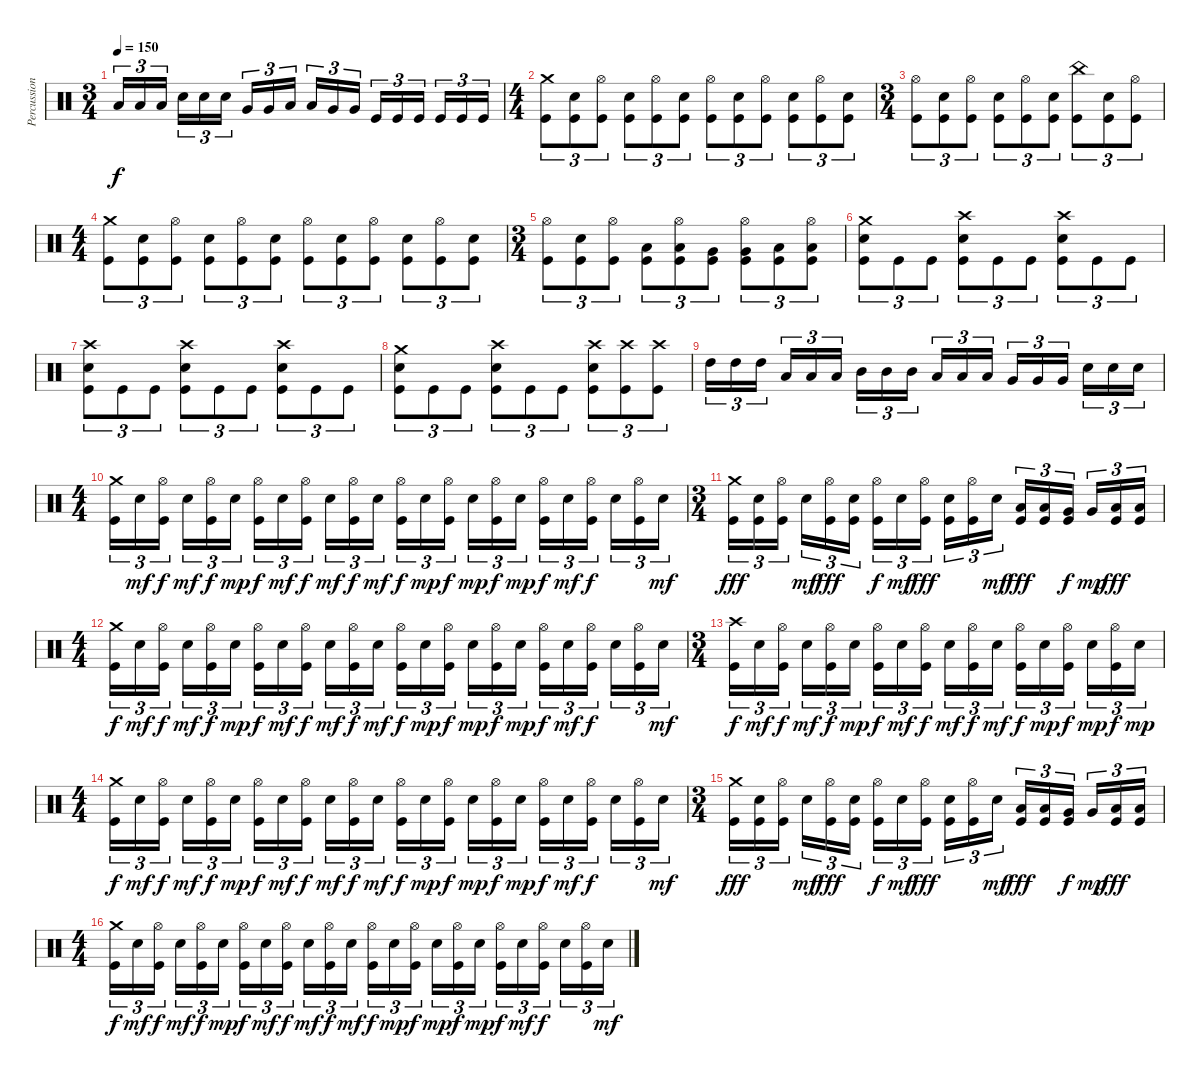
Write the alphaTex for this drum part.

\track ("Percussions" "Percussion") {instrument percussion}
\staff {score}
\articulation defaults
\ts (3 4)
\tempo 150
\clef neutral
\ks c "Low Tom (hit)".16{tu (3 2) dy f} "Low Tom (hit)".16{tu (3 2)} "Low Tom (hit)".16{tu (3 2)} "Snare (hit) 2".16{tu (3 2)} "Snare (hit) 2".16{tu (3 2)} "Snare (hit) 2".16{tu (3 2)} "Very Low Tom (hit)".16{tu (3 2)} "Very Low Tom (hit)".16{tu (3 2)} "Low Tom (hit)".16{tu (3 2)} "Low Tom (hit)".16{tu (3 2)} "Very Low Tom (hit)".16{tu (3 2)} "Very Low Tom (hit)".16{tu (3 2)} "Kick (hit)".16{tu (3 2)} "Kick (hit)".16{tu (3 2)} "Kick (hit)".16{tu (3 2)} "Kick (hit)".16{tu (3 2)} "Kick (hit)".16{tu (3 2)} "Kick (hit)".16{tu (3 2)}
|
\ts (4 4)
("Crash medium (hit)" "Kick (hit)").8{tu (3 2)} ("Snare (hit) 2" "Kick (hit)").8{tu (3 2)} ("Hi-Hat (open)" "Kick (hit)").8{tu (3 2)} ("Snare (hit) 2" "Kick (hit)").8{tu (3 2)} ("Hi-Hat (open)" "Kick (hit)").8{tu (3 2)} ("Snare (hit) 2" "Kick (hit)").8{tu (3 2)} ("Hi-Hat (open)" "Kick (hit)").8{tu (3 2)} ("Snare (hit) 2" "Kick (hit)").8{tu (3 2)} ("Hi-Hat (open)" "Kick (hit)").8{tu (3 2)} ("Snare (hit) 2" "Kick (hit)").8{tu (3 2)} ("Hi-Hat (open)" "Kick (hit)").8{tu (3 2)} ("Snare (hit) 2" "Kick (hit)").8{tu (3 2)} |
\ts (3 4)
("Hi-Hat (open)" "Kick (hit)").8{tu (3 2)} ("Snare (hit) 2" "Kick (hit)").8{tu (3 2)} ("Hi-Hat (open)" "Kick (hit)").8{tu (3 2)} ("Snare (hit) 2" "Kick (hit)").8{tu (3 2)} ("Hi-Hat (open)" "Kick (hit)").8{tu (3 2)} ("Snare (hit) 2" "Kick (hit)").8{tu (3 2)} ("China (hit)" "Kick (hit)").8{tu (3 2)} ("Snare (hit) 2" "Kick (hit)").8{tu (3 2)} ("Hi-Hat (open)" "Kick (hit)").8{tu (3 2)} |
\ts (4 4)
("Crash medium (hit)" "Kick (hit)").8{tu (3 2)} ("Snare (hit) 2" "Kick (hit)").8{tu (3 2)} ("Hi-Hat (open)" "Kick (hit)").8{tu (3 2)} ("Snare (hit) 2" "Kick (hit)").8{tu (3 2)} ("Hi-Hat (open)" "Kick (hit)").8{tu (3 2)} ("Snare (hit) 2" "Kick (hit)").8{tu (3 2)} ("Hi-Hat (open)" "Kick (hit)").8{tu (3 2)} ("Snare (hit) 2" "Kick (hit)").8{tu (3 2)} ("Hi-Hat (open)" "Kick (hit)").8{tu (3 2)} ("Snare (hit) 2" "Kick (hit)").8{tu (3 2)} ("Hi-Hat (open)" "Kick (hit)").8{tu (3 2)} ("Snare (hit) 2" "Kick (hit)").8{tu (3 2)} |
\ts (3 4)
("Hi-Hat (open)" "Kick (hit)").8{tu (3 2)} ("Snare (hit) 2" "Kick (hit)").8{tu (3 2)} ("Hi-Hat (open)" "Kick (hit)").8{tu (3 2)} ("Low Tom (hit)" "Kick (hit)").8{tu (3 2)} ("Hi-Hat (open)" "Low Tom (hit)" "Kick (hit)").8{tu (3 2)} ("Very Low Tom (hit)" "Kick (hit)").8{tu (3 2)} ("Hi-Hat (open)" "Very Low Tom (hit)" "Kick (hit)").8{tu (3 2)} ("Low Tom (hit)" "Kick (hit)").8{tu (3 2)} ("Hi-Hat (open)" "Low Tom (hit)" "Kick (hit)").8{tu (3 2)} |
("Crash medium (hit)" "Snare (hit) 2" "Kick (hit)").8{tu (3 2)} "Kick (hit)".8{tu (3 2)} "Kick (hit)".8{tu (3 2)} ("Crash high (hit)" "Snare (hit) 2" "Kick (hit)").8{tu (3 2)} "Kick (hit)".8{tu (3 2)} "Kick (hit)".8{tu (3 2)} ("Crash high (hit)" "Snare (hit) 2" "Kick (hit)").8{tu (3 2)} "Kick (hit)".8{tu (3 2)} "Kick (hit)".8{tu (3 2)} |
("Crash high (hit)" "Snare (hit) 2" "Kick (hit)").8{tu (3 2)} "Kick (hit)".8{tu (3 2)} "Kick (hit)".8{tu (3 2)} ("Crash high (hit)" "Snare (hit) 2" "Kick (hit)").8{tu (3 2)} "Kick (hit)".8{tu (3 2)} "Kick (hit)".8{tu (3 2)} ("Crash high (hit)" "Snare (hit) 2" "Kick (hit)").8{tu (3 2)} "Kick (hit)".8{tu (3 2)} "Kick (hit)".8{tu (3 2)} |
("Crash medium (hit)" "Snare (hit) 2" "Kick (hit)").8{tu (3 2)} "Kick (hit)".8{tu (3 2)} "Kick (hit)".8{tu (3 2)} ("Crash high (hit)" "Snare (hit) 2" "Kick (hit)").8{tu (3 2)} "Kick (hit)".8{tu (3 2)} "Kick (hit)".8{tu (3 2)} ("Crash high (hit)" "Snare (hit) 2" "Kick (hit)").8{tu (3 2)} ("Crash high (hit)" "Kick (hit)").8{tu (3 2)} ("Crash high (hit)" "Kick (hit)").8{tu (3 2)} |
"High Tom (hit)".16{tu (3 2)} "High Tom (hit)".16{tu (3 2)} "High Tom (hit)".16{tu (3 2)} "Low Tom (hit)".16{tu (3 2)} "Low Tom (hit)".16{tu (3 2)} "Low Tom (hit)".16{tu (3 2)} "Mid Tom (hit)".16{tu (3 2)} "Mid Tom (hit)".16{tu (3 2)} "Mid Tom (hit)".16{tu (3 2)} "Low Tom (hit)".16{tu (3 2)} "Low Tom (hit)".16{tu (3 2)} "Low Tom (hit)".16{tu (3 2)} "Very Low Tom (hit)".16{tu (3 2)} "Very Low Tom (hit)".16{tu (3 2)} "Very Low Tom (hit)".16{tu (3 2)} "Snare (hit) 2".16{tu (3 2)} "Snare (hit) 2".16{tu (3 2)} "Snare (hit) 2".16{tu (3 2)} |
\ts (4 4)
("Crash medium (hit)" "Kick (hit)").16{tu (3 2)} "Snare (hit) 2".16{tu (3 2) dy mf} ("Hi-Hat (open)" "Kick (hit)").16{tu (3 2) dy f} "Snare (hit) 2".16{tu (3 2) dy mf} ("Hi-Hat (open)" "Kick (hit)").16{tu (3 2) dy f} "Snare (hit) 2".16{tu (3 2) dy mp} ("Hi-Hat (open)" "Kick (hit)").16{tu (3 2) dy f} "Snare (hit) 2".16{tu (3 2) dy mf} ("Hi-Hat (open)" "Kick (hit)").16{tu (3 2) dy f} "Snare (hit) 2".16{tu (3 2) dy mf} ("Hi-Hat (open)" "Kick (hit)").16{tu (3 2) dy f} "Snare (hit) 2".16{tu (3 2) dy mf} ("Hi-Hat (open)" "Kick (hit)").16{tu (3 2) dy f} "Snare (hit) 2".16{tu (3 2) dy mp} ("Hi-Hat (open)" "Kick (hit)").16{tu (3 2) dy f} "Snare (hit) 2".16{tu (3 2) dy mp} ("Hi-Hat (open)" "Kick (hit)").16{tu (3 2) dy f} "Snare (hit) 2".16{tu (3 2) dy mp} ("Hi-Hat (open)" "Kick (hit)").16{tu (3 2) dy f} "Snare (hit) 2".16{tu (3 2) dy mf} ("Hi-Hat (open)" "Kick (hit)").16{tu (3 2) dy f} "Snare (hit) 2".16{tu (3 2)} ("Hi-Hat (open)" "Kick (hit)").16{tu (3 2)} "Snare (hit) 2".16{tu (3 2) dy mf} |
\ts (3 4)
("Crash medium (hit)" "Kick (hit)").16{tu (3 2) dy fff} ("Snare (hit) 2" "Kick (hit)").16{tu (3 2)} ("Hi-Hat (open)" "Kick (hit)").16{tu (3 2)} "Snare (hit) 2".16{tu (3 2) dy mf} ("Hi-Hat (open)" "Kick (hit)").16{tu (3 2) dy fff} ("Snare (hit) 2" "Kick (hit)").16{tu (3 2)} ("Hi-Hat (open)" "Kick (hit)").16{tu (3 2) dy f} "Snare (hit) 2".16{tu (3 2) dy mf} ("Hi-Hat (open)" "Kick (hit)").16{tu (3 2) dy fff} ("Snare (hit) 2" "Kick (hit)").16{tu (3 2)} ("Hi-Hat (open)" "Kick (hit)").16{tu (3 2)} "Snare (hit) 2".16{tu (3 2) dy mf} ("Low Tom (hit)" "Kick (hit)").16{tu (3 2) dy fff} ("Low Tom (hit)" "Kick (hit)").16{tu (3 2)} ("Very Low Tom (hit)" "Kick (hit)").16{tu (3 2) dy f} "Very Low Tom (hit)".16{tu (3 2) dy mp} ("Low Tom (hit)" "Kick (hit)").16{tu (3 2) dy fff} ("Low Tom (hit)" "Kick (hit)").16{tu (3 2)} |
\ts (4 4)
("Crash medium (hit)" "Kick (hit)").16{tu (3 2) dy f} "Snare (hit) 2".16{tu (3 2) dy mf} ("Hi-Hat (open)" "Kick (hit)").16{tu (3 2) dy f} "Snare (hit) 2".16{tu (3 2) dy mf} ("Hi-Hat (open)" "Kick (hit)").16{tu (3 2) dy f} "Snare (hit) 2".16{tu (3 2) dy mp} ("Hi-Hat (open)" "Kick (hit)").16{tu (3 2) dy f} "Snare (hit) 2".16{tu (3 2) dy mf} ("Hi-Hat (open)" "Kick (hit)").16{tu (3 2) dy f} "Snare (hit) 2".16{tu (3 2) dy mf} ("Hi-Hat (open)" "Kick (hit)").16{tu (3 2) dy f} "Snare (hit) 2".16{tu (3 2) dy mf} ("Hi-Hat (open)" "Kick (hit)").16{tu (3 2) dy f} "Snare (hit) 2".16{tu (3 2) dy mp} ("Hi-Hat (open)" "Kick (hit)").16{tu (3 2) dy f} "Snare (hit) 2".16{tu (3 2) dy mp} ("Hi-Hat (open)" "Kick (hit)").16{tu (3 2) dy f} "Snare (hit) 2".16{tu (3 2) dy mp} ("Hi-Hat (open)" "Kick (hit)").16{tu (3 2) dy f} "Snare (hit) 2".16{tu (3 2) dy mf} ("Hi-Hat (open)" "Kick (hit)").16{tu (3 2) dy f} "Snare (hit) 2".16{tu (3 2)} ("Hi-Hat (open)" "Kick (hit)").16{tu (3 2)} "Snare (hit) 2".16{tu (3 2) dy mf} |
\ts (3 4)
("Crash high (hit)" "Kick (hit)").16{tu (3 2) dy f} "Snare (hit) 2".16{tu (3 2) dy mf} ("Hi-Hat (open)" "Kick (hit)").16{tu (3 2) dy f} "Snare (hit) 2".16{tu (3 2) dy mf} ("Hi-Hat (open)" "Kick (hit)").16{tu (3 2) dy f} "Snare (hit) 2".16{tu (3 2) dy mp} ("Hi-Hat (open)" "Kick (hit)").16{tu (3 2) dy f} "Snare (hit) 2".16{tu (3 2) dy mf} ("Hi-Hat (open)" "Kick (hit)").16{tu (3 2) dy f} "Snare (hit) 2".16{tu (3 2) dy mf} ("Hi-Hat (open)" "Kick (hit)").16{tu (3 2) dy f} "Snare (hit) 2".16{tu (3 2) dy mf} ("Hi-Hat (open)" "Kick (hit)").16{tu (3 2) dy f} "Snare (hit) 2".16{tu (3 2) dy mp} ("Hi-Hat (open)" "Kick (hit)").16{tu (3 2) dy f} "Snare (hit) 2".16{tu (3 2) dy mp} ("Hi-Hat (open)" "Kick (hit)").16{tu (3 2) dy f} "Snare (hit) 2".16{tu (3 2) dy mp} |
\ts (4 4)
("Crash medium (hit)" "Kick (hit)").16{tu (3 2) dy f} "Snare (hit) 2".16{tu (3 2) dy mf} ("Hi-Hat (open)" "Kick (hit)").16{tu (3 2) dy f} "Snare (hit) 2".16{tu (3 2) dy mf} ("Hi-Hat (open)" "Kick (hit)").16{tu (3 2) dy f} "Snare (hit) 2".16{tu (3 2) dy mp} ("Hi-Hat (open)" "Kick (hit)").16{tu (3 2) dy f} "Snare (hit) 2".16{tu (3 2) dy mf} ("Hi-Hat (open)" "Kick (hit)").16{tu (3 2) dy f} "Snare (hit) 2".16{tu (3 2) dy mf} ("Hi-Hat (open)" "Kick (hit)").16{tu (3 2) dy f} "Snare (hit) 2".16{tu (3 2) dy mf} ("Hi-Hat (open)" "Kick (hit)").16{tu (3 2) dy f} "Snare (hit) 2".16{tu (3 2) dy mp} ("Hi-Hat (open)" "Kick (hit)").16{tu (3 2) dy f} "Snare (hit) 2".16{tu (3 2) dy mp} ("Hi-Hat (open)" "Kick (hit)").16{tu (3 2) dy f} "Snare (hit) 2".16{tu (3 2) dy mp} ("Hi-Hat (open)" "Kick (hit)").16{tu (3 2) dy f} "Snare (hit) 2".16{tu (3 2) dy mf} ("Hi-Hat (open)" "Kick (hit)").16{tu (3 2) dy f} "Snare (hit) 2".16{tu (3 2)} ("Hi-Hat (open)" "Kick (hit)").16{tu (3 2)} "Snare (hit) 2".16{tu (3 2) dy mf} |
\ts (3 4)
("Crash medium (hit)" "Kick (hit)").16{tu (3 2) dy fff} ("Snare (hit) 2" "Kick (hit)").16{tu (3 2)} ("Hi-Hat (open)" "Kick (hit)").16{tu (3 2)} "Snare (hit) 2".16{tu (3 2) dy mf} ("Hi-Hat (open)" "Kick (hit)").16{tu (3 2) dy fff} ("Snare (hit) 2" "Kick (hit)").16{tu (3 2)} ("Hi-Hat (open)" "Kick (hit)").16{tu (3 2) dy f} "Snare (hit) 2".16{tu (3 2) dy mf} ("Hi-Hat (open)" "Kick (hit)").16{tu (3 2) dy fff} ("Snare (hit) 2" "Kick (hit)").16{tu (3 2)} ("Hi-Hat (open)" "Kick (hit)").16{tu (3 2)} "Snare (hit) 2".16{tu (3 2) dy mf} ("Low Tom (hit)" "Kick (hit)").16{tu (3 2) dy fff} ("Low Tom (hit)" "Kick (hit)").16{tu (3 2)} ("Very Low Tom (hit)" "Kick (hit)").16{tu (3 2) dy f} "Very Low Tom (hit)".16{tu (3 2) dy mp} ("Low Tom (hit)" "Kick (hit)").16{tu (3 2) dy fff} ("Low Tom (hit)" "Kick (hit)").16{tu (3 2)} |
\ts (4 4)
("Crash medium (hit)" "Kick (hit)").16{tu (3 2) dy f} "Snare (hit) 2".16{tu (3 2) dy mf} ("Hi-Hat (open)" "Kick (hit)").16{tu (3 2) dy f} "Snare (hit) 2".16{tu (3 2) dy mf} ("Hi-Hat (open)" "Kick (hit)").16{tu (3 2) dy f} "Snare (hit) 2".16{tu (3 2) dy mp} ("Hi-Hat (open)" "Kick (hit)").16{tu (3 2) dy f} "Snare (hit) 2".16{tu (3 2) dy mf} ("Hi-Hat (open)" "Kick (hit)").16{tu (3 2) dy f} "Snare (hit) 2".16{tu (3 2) dy mf} ("Hi-Hat (open)" "Kick (hit)").16{tu (3 2) dy f} "Snare (hit) 2".16{tu (3 2) dy mf} ("Hi-Hat (open)" "Kick (hit)").16{tu (3 2) dy f} "Snare (hit) 2".16{tu (3 2) dy mp} ("Hi-Hat (open)" "Kick (hit)").16{tu (3 2) dy f} "Snare (hit) 2".16{tu (3 2) dy mp} ("Hi-Hat (open)" "Kick (hit)").16{tu (3 2) dy f} "Snare (hit) 2".16{tu (3 2) dy mp} ("Hi-Hat (open)" "Kick (hit)").16{tu (3 2) dy f} "Snare (hit) 2".16{tu (3 2) dy mf} ("Hi-Hat (open)" "Kick (hit)").16{tu (3 2) dy f} "Snare (hit) 2".16{tu (3 2)} ("Hi-Hat (open)" "Kick (hit)").16{tu (3 2)} "Snare (hit) 2".16{tu (3 2) dy mf}
